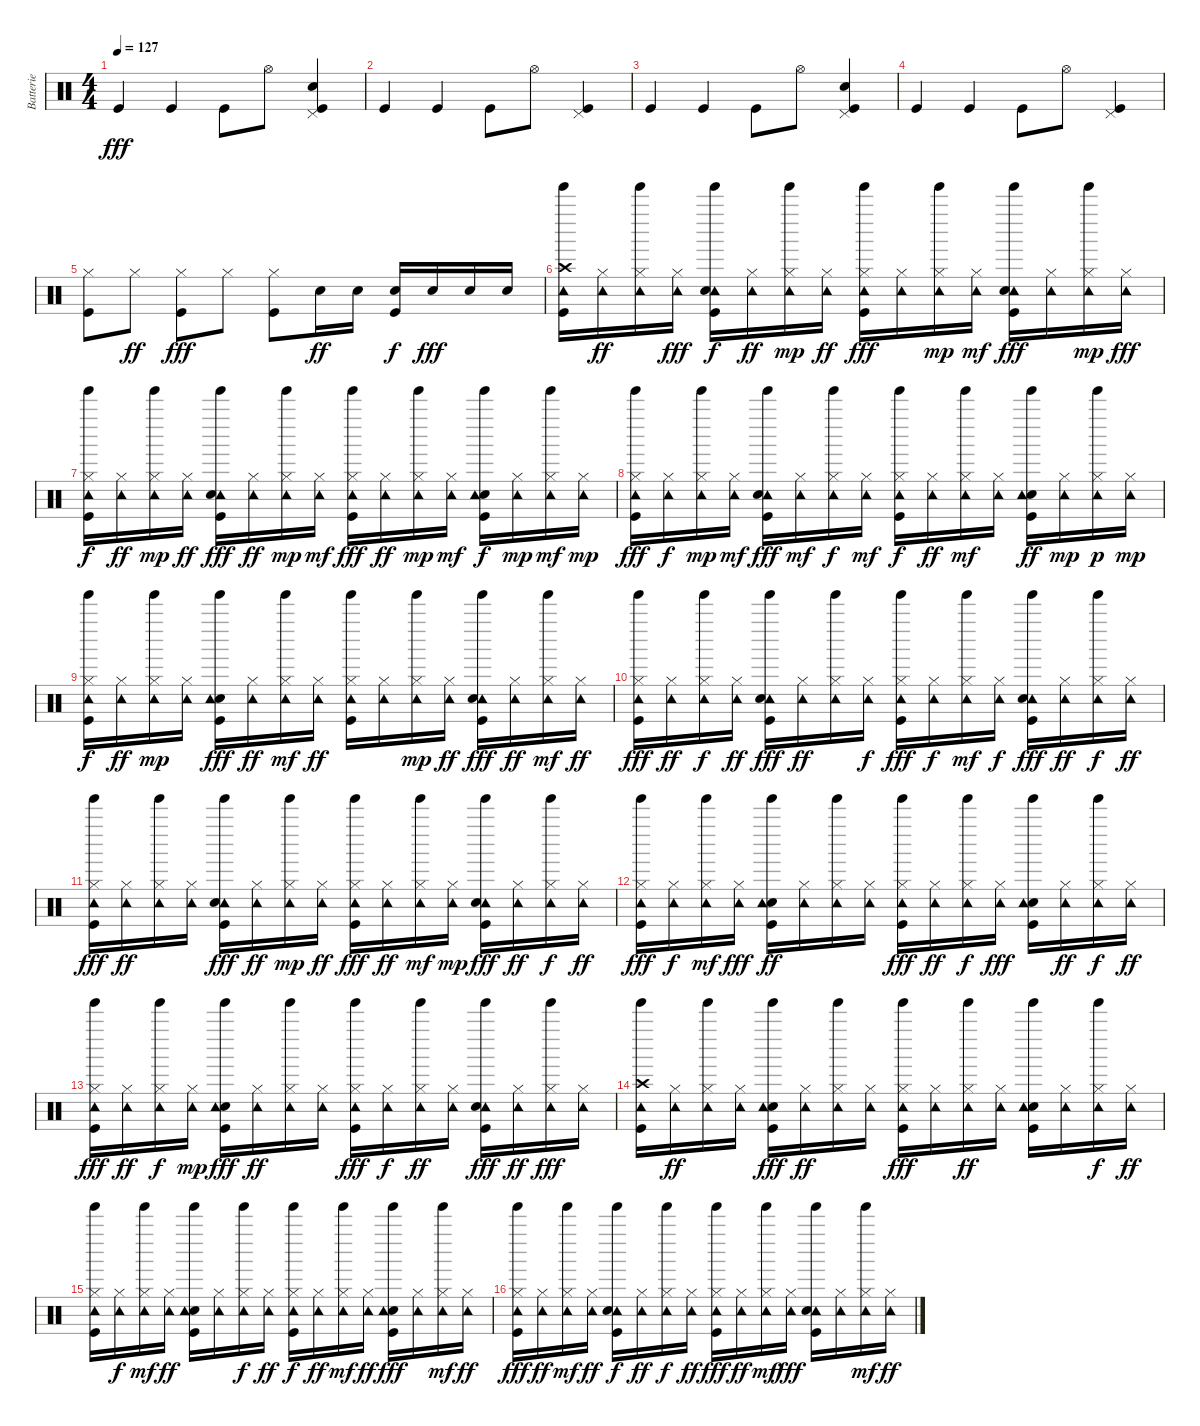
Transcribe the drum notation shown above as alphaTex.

\track ("Batterie" "Batterie") {instrument percussion}
\staff {score}
\articulation defaults
\ts (4 4)
\tempo 127
\clef neutral
\ks c "Kick (hit)".4{dy fff} "Kick (hit)".4 "Kick (hit)".8 "Hi-Hat (open)".8
("Snare (hit) 2" "Pedal Hi-Hat (hit)" "Kick (hit)").4 |
"Kick (hit)".4 "Kick (hit)".4 "Kick (hit)".8 "Hi-Hat (open)".8 ("Kick (hit)" "Pedal Hi-Hat (hit)").4 |
"Kick (hit)".4 "Kick (hit)".4 "Kick (hit)".8 "Hi-Hat (open)".8 ("Kick (hit)" "Snare (hit) 2" "Pedal Hi-Hat (hit)").4 |
"Kick (hit)".4 "Kick (hit)".4 "Kick (hit)".8 "Hi-Hat (open)".8 ("Kick (hit)" "Pedal Hi-Hat (hit)").4 |
("Kick (hit)" "Hi-Hat (closed)").8 "Hi-Hat (closed)".8{dy ff} ("Kick (hit)" "Hi-Hat (closed)").8{dy fff} "Hi-Hat (closed)".8 ("Hi-Hat (closed)" "Kick (hit)").8 "Snare (hit) 2".16{dy ff} "Snare (hit) 2".16 ("Kick (hit)" "Snare (hit) 2").16{dy f} "Snare (hit) 2".16{dy fff} "Snare (hit) 2".16 "Snare (hit) 2".16 |
("Crash high (hit)" "Tinkle Bell (hit)" "Tambourine (hit)" "Kick (hit)").16 ("Tambourine (hit)" "Hi-Hat (closed)").16{dy ff} ("Tinkle Bell (hit)" "Tambourine (hit)" "Hi-Hat (closed)").16 ("Tambourine (hit)" "Hi-Hat (closed)").16{dy fff} ("Tambourine (hit)" "Kick (hit)" "Snare (hit) 2" "Tinkle Bell (hit)").16{dy f} ("Tambourine (hit)" "Hi-Hat (closed)").16{dy ff} ("Hi-Hat (closed)" "Tambourine (hit)" "Tinkle Bell (hit)").16{dy mp} ("Tambourine (hit)" "Hi-Hat (closed)").16{dy ff} ("Kick (hit)" "Tambourine (hit)" "Tinkle Bell (hit)" "Hi-Hat (closed)").16{dy fff} ("Tambourine (hit)" "Hi-Hat (closed)").16 ("Hi-Hat (closed)" "Tambourine (hit)" "Tinkle Bell (hit)").16{dy mp} ("Hi-Hat (closed)" "Tambourine (hit)").16{dy mf} ("Tinkle Bell (hit)" "Tambourine (hit)" "Kick (hit)" "Snare (hit) 2").16{dy fff} ("Tambourine (hit)" "Hi-Hat (closed)").16 ("Hi-Hat (closed)" "Tambourine (hit)" "Tinkle Bell (hit)").16{dy mp} ("Tambourine (hit)" "Hi-Hat (closed)").16{dy fff} |
("Tambourine (hit)" "Kick (hit)" "Hi-Hat (closed)" "Tinkle Bell (hit)").16{dy f} ("Tambourine (hit)" "Hi-Hat (closed)").16{dy ff} ("Hi-Hat (closed)" "Tambourine (hit)" "Tinkle Bell (hit)").16{dy mp} ("Tambourine (hit)" "Hi-Hat (closed)").16{dy ff} ("Tambourine (hit)" "Tinkle Bell (hit)" "Kick (hit)" "Snare (hit) 2").16{dy fff} ("Tambourine (hit)" "Hi-Hat (closed)").16{dy ff} ("Tinkle Bell (hit)" "Hi-Hat (closed)" "Tambourine (hit)").16{dy mp} ("Hi-Hat (closed)" "Tambourine (hit)").16{dy mf} ("Tinkle Bell (hit)" "Tambourine (hit)" "Kick (hit)" "Hi-Hat (closed)").16{dy fff} ("Tambourine (hit)" "Hi-Hat (closed)").16{dy ff} ("Tinkle Bell (hit)" "Hi-Hat (closed)" "Tambourine (hit)").16{dy mp} ("Hi-Hat (closed)" "Tambourine (hit)").16{dy mf} ("Tinkle Bell (hit)" "Snare (hit) 2" "Kick (hit)" "Tambourine (hit)").16{dy f} ("Hi-Hat (closed)" "Tambourine (hit)").16{dy mp} ("Hi-Hat (closed)" "Tinkle Bell (hit)" "Tambourine (hit)").16{dy mf} ("Hi-Hat (closed)" "Tambourine (hit)").16{dy mp} |
("Hi-Hat (closed)" "Tinkle Bell (hit)" "Tambourine (hit)" "Kick (hit)").16{dy fff} ("Tambourine (hit)" "Hi-Hat (closed)").16{dy f} ("Hi-Hat (closed)" "Tinkle Bell (hit)" "Tambourine (hit)").16{dy mp} ("Hi-Hat (closed)" "Tambourine (hit)").16{dy mf} ("Tinkle Bell (hit)" "Kick (hit)" "Tambourine (hit)" "Snare (hit) 2").16{dy fff} ("Hi-Hat (closed)" "Tambourine (hit)").16{dy mf} ("Tinkle Bell (hit)" "Tambourine (hit)" "Hi-Hat (closed)").16{dy f} ("Hi-Hat (closed)" "Tambourine (hit)").16{dy mf} ("Tinkle Bell (hit)" "Kick (hit)" "Hi-Hat (closed)" "Tambourine (hit)").16{dy f} ("Tambourine (hit)" "Hi-Hat (closed)").16{dy ff} ("Tinkle Bell (hit)" "Hi-Hat (closed)" "Tambourine (hit)").16{dy mf} ("Hi-Hat (closed)" "Tambourine (hit)").16 ("Tinkle Bell (hit)" "Kick (hit)" "Snare (hit) 2" "Tambourine (hit)").16{dy ff} ("Hi-Hat (closed)" "Tambourine (hit)").16{dy mp} ("Tinkle Bell (hit)" "Hi-Hat (closed)" "Tambourine (hit)").16{dy p} ("Hi-Hat (closed)" "Tambourine (hit)").16{dy mp} |
("Kick (hit)" "Hi-Hat (closed)" "Tambourine (hit)" "Tinkle Bell (hit)").16{dy f} ("Tambourine (hit)" "Hi-Hat (closed)").16{dy ff} ("Hi-Hat (closed)" "Tambourine (hit)" "Tinkle Bell (hit)").16{dy mp} ("Hi-Hat (closed)" "Tambourine (hit)").16 ("Tinkle Bell (hit)" "Snare (hit) 2" "Tambourine (hit)" "Kick (hit)").16{dy fff} ("Tambourine (hit)" "Hi-Hat (closed)").16{dy ff} ("Tinkle Bell (hit)" "Tambourine (hit)" "Hi-Hat (closed)").16{dy mf} ("Tambourine (hit)" "Hi-Hat (closed)").16{dy ff} ("Tinkle Bell (hit)" "Hi-Hat (closed)" "Kick (hit)" "Tambourine (hit)").16 ("Tambourine (hit)" "Hi-Hat (closed)").16 ("Tinkle Bell (hit)" "Hi-Hat (closed)" "Tambourine (hit)").16{dy mp} ("Tambourine (hit)" "Hi-Hat (closed)").16{dy ff} ("Tinkle Bell (hit)" "Tambourine (hit)" "Kick (hit)" "Snare (hit) 2").16{dy fff} ("Tambourine (hit)" "Hi-Hat (closed)").16{dy ff} ("Tinkle Bell (hit)" "Tambourine (hit)" "Hi-Hat (closed)").16{dy mf} ("Tambourine (hit)" "Hi-Hat (closed)").16{dy ff} |
("Tinkle Bell (hit)" "Hi-Hat (closed)" "Tambourine (hit)" "Kick (hit)").16{dy fff} ("Tambourine (hit)" "Hi-Hat (closed)").16{dy ff} ("Tambourine (hit)" "Tinkle Bell (hit)" "Hi-Hat (closed)").16{dy f} ("Tambourine (hit)" "Hi-Hat (closed)").16{dy ff} ("Tinkle Bell (hit)" "Kick (hit)" "Tambourine (hit)" "Snare (hit) 2").16{dy fff} ("Tambourine (hit)" "Hi-Hat (closed)").16{dy ff} ("Tinkle Bell (hit)" "Tambourine (hit)" "Hi-Hat (closed)").16 ("Tambourine (hit)" "Hi-Hat (closed)").16{dy f} ("Tinkle Bell (hit)" "Hi-Hat (closed)" "Tambourine (hit)" "Kick (hit)").16{dy fff} ("Tambourine (hit)" "Hi-Hat (closed)").16{dy f} ("Tinkle Bell (hit)" "Hi-Hat (closed)" "Tambourine (hit)").16{dy mf} ("Tambourine (hit)" "Hi-Hat (closed)").16{dy f} ("Tinkle Bell (hit)" "Kick (hit)" "Tambourine (hit)" "Snare (hit) 2").16{dy fff} ("Tambourine (hit)" "Hi-Hat (closed)").16{dy ff} ("Tinkle Bell (hit)" "Tambourine (hit)" "Hi-Hat (closed)").16{dy f} ("Tambourine (hit)" "Hi-Hat (closed)").16{dy ff} |
("Tinkle Bell (hit)" "Kick (hit)" "Tambourine (hit)" "Hi-Hat (closed)").16{dy fff} ("Tambourine (hit)" "Hi-Hat (closed)").16{dy ff} ("Tinkle Bell (hit)" "Tambourine (hit)" "Hi-Hat (closed)").16 ("Tambourine (hit)" "Hi-Hat (closed)").16 ("Tinkle Bell (hit)" "Kick (hit)" "Tambourine (hit)" "Snare (hit) 2").16{dy fff} ("Tambourine (hit)" "Hi-Hat (closed)").16{dy ff} ("Tinkle Bell (hit)" "Hi-Hat (closed)" "Tambourine (hit)").16{dy mp} ("Tambourine (hit)" "Hi-Hat (closed)").16{dy ff} ("Hi-Hat (closed)" "Tambourine (hit)" "Tinkle Bell (hit)" "Kick (hit)").16{dy fff} ("Tambourine (hit)" "Hi-Hat (closed)").16{dy ff} ("Hi-Hat (closed)" "Tambourine (hit)" "Tinkle Bell (hit)").16{dy mf} ("Hi-Hat (closed)" "Tambourine (hit)").16{dy mp} ("Tambourine (hit)" "Tinkle Bell (hit)" "Kick (hit)" "Snare (hit) 2").16{dy fff} ("Tambourine (hit)" "Hi-Hat (closed)").16{dy ff} ("Tinkle Bell (hit)" "Tambourine (hit)" "Hi-Hat (closed)").16{dy f} ("Tambourine (hit)" "Hi-Hat (closed)").16{dy ff} |
("Tambourine (hit)" "Tinkle Bell (hit)" "Kick (hit)" "Hi-Hat (closed)").16{dy fff} ("Tambourine (hit)" "Hi-Hat (closed)").16{dy f} ("Tinkle Bell (hit)" "Hi-Hat (closed)" "Tambourine (hit)").16{dy mf} ("Tambourine (hit)" "Hi-Hat (closed)").16{dy fff} ("Tinkle Bell (hit)" "Kick (hit)" "Snare (hit) 2" "Tambourine (hit)").16{dy ff} ("Tambourine (hit)" "Hi-Hat (closed)").16 ("Tinkle Bell (hit)" "Tambourine (hit)" "Hi-Hat (closed)").16 ("Tambourine (hit)" "Hi-Hat (closed)").16 ("Tinkle Bell (hit)" "Tambourine (hit)" "Kick (hit)" "Hi-Hat (closed)").16{dy fff} ("Tambourine (hit)" "Hi-Hat (closed)").16{dy ff} ("Tinkle Bell (hit)" "Tambourine (hit)" "Hi-Hat (closed)").16{dy f} ("Tambourine (hit)" "Hi-Hat (closed)").16{dy fff} ("Snare (hit) 2" "Tinkle Bell (hit)" "Tambourine (hit)" "Kick (hit)").16 ("Tambourine (hit)" "Hi-Hat (closed)").16{dy ff} ("Tambourine (hit)" "Tinkle Bell (hit)" "Hi-Hat (closed)").16{dy f} ("Tambourine (hit)" "Hi-Hat (closed)").16{dy ff} |
("Tinkle Bell (hit)" "Hi-Hat (closed)" "Tambourine (hit)" "Kick (hit)").16{dy fff} ("Tambourine (hit)" "Hi-Hat (closed)").16{dy ff} ("Tambourine (hit)" "Tinkle Bell (hit)" "Hi-Hat (closed)").16{dy f} ("Hi-Hat (closed)" "Tambourine (hit)").16{dy mp} ("Snare (hit) 2" "Tambourine (hit)" "Tinkle Bell (hit)" "Kick (hit)").16{dy fff} ("Tambourine (hit)" "Hi-Hat (closed)").16{dy ff} ("Tinkle Bell (hit)" "Tambourine (hit)" "Hi-Hat (closed)").16 ("Tambourine (hit)" "Hi-Hat (closed)").16 ("Tinkle Bell (hit)" "Hi-Hat (closed)" "Tambourine (hit)" "Kick (hit)").16{dy fff} ("Tambourine (hit)" "Hi-Hat (closed)").16{dy f} ("Tambourine (hit)" "Tinkle Bell (hit)" "Hi-Hat (closed)").16{dy ff} ("Tambourine (hit)" "Hi-Hat (closed)").16 ("Tinkle Bell (hit)" "Tambourine (hit)" "Kick (hit)" "Snare (hit) 2").16{dy fff} ("Tambourine (hit)" "Hi-Hat (closed)").16{dy ff} ("Tinkle Bell (hit)" "Tambourine (hit)" "Hi-Hat (closed)").16{dy fff} ("Tambourine (hit)" "Hi-Hat (closed)").16 |
("Crash high (hit)" "Tinkle Bell (hit)" "Tambourine (hit)" "Kick (hit)").16 ("Tambourine (hit)" "Hi-Hat (closed)").16{dy ff} ("Tambourine (hit)" "Tinkle Bell (hit)" "Hi-Hat (closed)").16 ("Tambourine (hit)" "Hi-Hat (closed)").16 ("Tinkle Bell (hit)" "Snare (hit) 2" "Tambourine (hit)" "Kick (hit)").16{dy fff} ("Tambourine (hit)" "Hi-Hat (closed)").16{dy ff} ("Tambourine (hit)" "Tinkle Bell (hit)" "Hi-Hat (closed)").16 ("Tambourine (hit)" "Hi-Hat (closed)").16 ("Tambourine (hit)" "Tinkle Bell (hit)" "Kick (hit)" "Hi-Hat (closed)").16{dy fff} ("Tambourine (hit)" "Hi-Hat (closed)").16 ("Tinkle Bell (hit)" "Tambourine (hit)" "Hi-Hat (closed)").16{dy ff} ("Tambourine (hit)" "Hi-Hat (closed)").16 ("Tinkle Bell (hit)" "Kick (hit)" "Snare (hit) 2" "Tambourine (hit)").16 ("Tambourine (hit)" "Hi-Hat (closed)").16 ("Tinkle Bell (hit)" "Tambourine (hit)" "Hi-Hat (closed)").16{dy f} ("Tambourine (hit)" "Hi-Hat (closed)").16{dy ff} |
("Tinkle Bell (hit)" "Kick (hit)" "Hi-Hat (closed)" "Tambourine (hit)").16 ("Tambourine (hit)" "Hi-Hat (closed)").16{dy f} ("Hi-Hat (closed)" "Tinkle Bell (hit)" "Tambourine (hit)").16{dy mf} ("Tambourine (hit)" "Hi-Hat (closed)").16{dy ff} ("Tinkle Bell (hit)" "Kick (hit)" "Snare (hit) 2" "Tambourine (hit)").16 ("Tambourine (hit)" "Hi-Hat (closed)").16 ("Tinkle Bell (hit)" "Tambourine (hit)" "Hi-Hat (closed)").16{dy f} ("Tambourine (hit)" "Hi-Hat (closed)").16{dy ff} ("Tinkle Bell (hit)" "Hi-Hat (closed)" "Kick (hit)" "Tambourine (hit)").16{dy f} ("Tambourine (hit)" "Hi-Hat (closed)").16{dy ff} ("Hi-Hat (closed)" "Tinkle Bell (hit)" "Tambourine (hit)").16{dy mf} ("Tambourine (hit)" "Hi-Hat (closed)").16{dy ff} ("Tinkle Bell (hit)" "Snare (hit) 2" "Tambourine (hit)" "Kick (hit)").16{dy fff} ("Tambourine (hit)" "Hi-Hat (closed)").16 ("Tinkle Bell (hit)" "Hi-Hat (closed)" "Tambourine (hit)").16{dy mf} ("Tambourine (hit)" "Hi-Hat (closed)").16{dy ff} |
("Hi-Hat (closed)" "Tambourine (hit)" "Tinkle Bell (hit)" "Kick (hit)").16{dy fff} ("Tambourine (hit)" "Hi-Hat (closed)").16{dy ff} ("Hi-Hat (closed)" "Tambourine (hit)" "Tinkle Bell (hit)").16{dy mf} ("Tambourine (hit)" "Hi-Hat (closed)").16{dy ff} ("Tambourine (hit)" "Kick (hit)" "Snare (hit) 2" "Tinkle Bell (hit)").16{dy f} ("Tambourine (hit)" "Hi-Hat (closed)").16{dy ff} ("Tinkle Bell (hit)" "Tambourine (hit)" "Hi-Hat (closed)").16{dy f} ("Tambourine (hit)" "Hi-Hat (closed)").16{dy ff} ("Tinkle Bell (hit)" "Hi-Hat (closed)" "Tambourine (hit)" "Kick (hit)").16{dy fff} ("Tambourine (hit)" "Hi-Hat (closed)").16{dy ff} ("Hi-Hat (closed)" "Tinkle Bell (hit)" "Tambourine (hit)").16{dy mf} ("Tambourine (hit)" "Hi-Hat (closed)").16{dy fff} ("Tinkle Bell (hit)" "Tambourine (hit)" "Kick (hit)" "Snare (hit) 2").16 ("Tambourine (hit)" "Hi-Hat (closed)").16 ("Tambourine (hit)" "Tinkle Bell (hit)" "Hi-Hat (closed)").16{dy mf} ("Tambourine (hit)" "Hi-Hat (closed)").16{dy ff}
